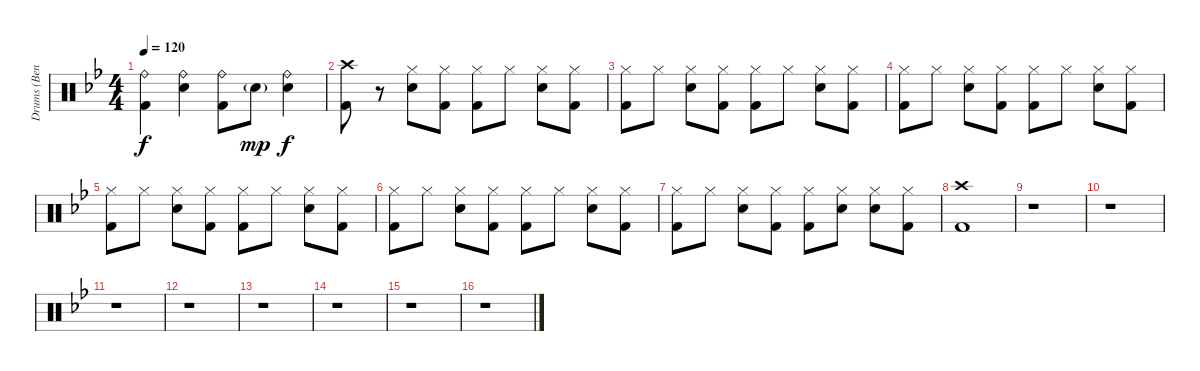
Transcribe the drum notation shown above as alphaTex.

\track ("Drums (Bengerg)" "Drums (Ben") {instrument percussion}
\staff {score}
\articulation defaults
\ts (4 4)
\tempo 120
\clef neutral
\ks bb
("Ride (bell)" "Kick (hit) 2").4{dy f} ("Ride (bell)" "Electric Snare (hit)").4 ("Ride (bell)" "Kick (hit) 2").8 "Electric Snare (hit)"{g}.8{dy mp} ("Ride (bell)" "Electric Snare (hit)").4{dy f} |
("Crash high (hit)" "Kick (hit) 2").8 r.8 ("Hi-Hat (closed)" "Electric Snare (hit)").8 ("Hi-Hat (closed)" "Kick (hit) 2").8 ("Hi-Hat (closed)" "Kick (hit) 2").8 "Hi-Hat (closed)".8 ("Hi-Hat (closed)" "Electric Snare (hit)").8 ("Hi-Hat (closed)" "Kick (hit) 2").8 |
("Hi-Hat (closed)" "Kick (hit) 2").8 "Hi-Hat (closed)".8 ("Hi-Hat (closed)" "Electric Snare (hit)").8 ("Hi-Hat (closed)" "Kick (hit) 2").8 ("Hi-Hat (closed)" "Kick (hit) 2").8 "Hi-Hat (closed)".8 ("Hi-Hat (closed)" "Electric Snare (hit)").8 ("Hi-Hat (closed)" "Kick (hit) 2").8 |
("Hi-Hat (closed)" "Kick (hit) 2").8 "Hi-Hat (closed)".8 ("Hi-Hat (closed)" "Electric Snare (hit)").8 ("Hi-Hat (closed)" "Kick (hit) 2").8 ("Hi-Hat (closed)" "Kick (hit) 2").8 "Hi-Hat (closed)".8 ("Hi-Hat (closed)" "Electric Snare (hit)").8 ("Hi-Hat (closed)" "Kick (hit) 2").8 |
("Hi-Hat (closed)" "Kick (hit) 2").8 "Hi-Hat (closed)".8 ("Hi-Hat (closed)" "Electric Snare (hit)").8 ("Hi-Hat (closed)" "Kick (hit) 2").8 ("Hi-Hat (closed)" "Kick (hit) 2").8 "Hi-Hat (closed)".8 ("Hi-Hat (closed)" "Electric Snare (hit)").8 ("Hi-Hat (closed)" "Kick (hit) 2").8 |
("Hi-Hat (closed)" "Kick (hit) 2").8 "Hi-Hat (closed)".8 ("Hi-Hat (closed)" "Electric Snare (hit)").8 ("Hi-Hat (closed)" "Kick (hit) 2").8 ("Hi-Hat (closed)" "Kick (hit) 2").8 "Hi-Hat (closed)".8 ("Hi-Hat (closed)" "Electric Snare (hit)").8 ("Hi-Hat (closed)" "Kick (hit) 2").8 |
("Hi-Hat (closed)" "Kick (hit) 2").8 "Hi-Hat (closed)".8 ("Hi-Hat (closed)" "Electric Snare (hit)").8 ("Hi-Hat (closed)" "Kick (hit) 2").8 ("Hi-Hat (closed)" "Kick (hit) 2").8 ("Hi-Hat (closed)" "Electric Snare (hit)").8 ("Hi-Hat (closed)" "Electric Snare (hit)").8 ("Hi-Hat (closed)" "Kick (hit) 2").8 |
("Crash high (hit)" "Kick (hit) 2").1 |
r.1 |
r.1 |
r.1 |
r.1 |
r.1 |
r.1 |
r.1 |
r.1
